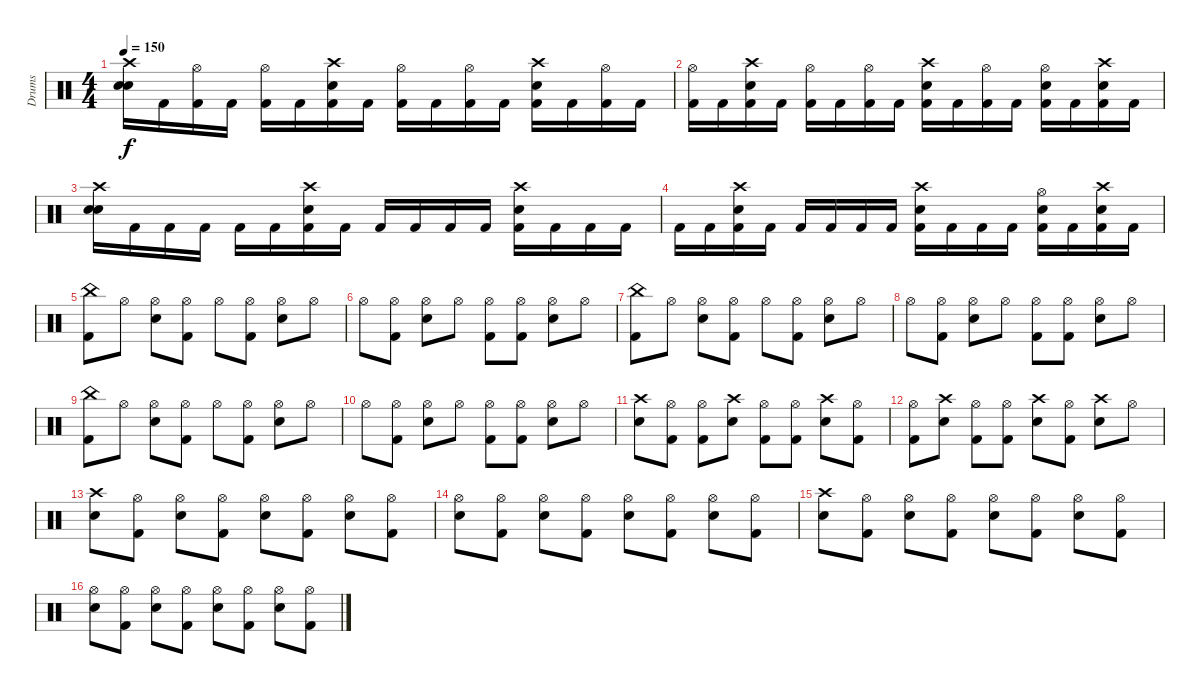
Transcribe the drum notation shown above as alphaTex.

\track ("Drums" "Drums") {instrument percussion}
\staff {score}
\articulation defaults
\ts (4 4)
\tempo 150
\clef neutral
\ks c
("Crash high (hit)" "Snare (hit) 2" "Snare (hit) 2").16{dy f} "Kick (hit) 2".16 ("Hi-Hat (open)" "Kick (hit) 2").16 "Kick (hit) 2".16 ("Hi-Hat (open)" "Kick (hit) 2").16 "Kick (hit) 2".16 ("Snare (hit) 2" "Crash high (hit)" "Kick (hit) 2").16 "Kick (hit) 2".16 ("Hi-Hat (open)" "Kick (hit) 2").16 "Kick (hit) 2".16 ("Hi-Hat (open)" "Kick (hit) 2").16 "Kick (hit) 2".16 ("Snare (hit) 2" "Crash high (hit)" "Kick (hit) 2").16 "Kick (hit) 2".16 ("Hi-Hat (open)" "Kick (hit) 2").16 "Kick (hit) 2".16 |
("Hi-Hat (open)" "Kick (hit) 2").16 "Kick (hit) 2".16 ("Snare (hit) 2" "Crash high (hit)" "Kick (hit) 2").16 "Kick (hit) 2".16 ("Hi-Hat (open)" "Kick (hit) 2").16 "Kick (hit) 2".16 ("Hi-Hat (open)" "Kick (hit) 2").16 "Kick (hit) 2".16 ("Snare (hit) 2" "Crash high (hit)" "Kick (hit) 2").16 "Kick (hit) 2".16 ("Hi-Hat (open)" "Kick (hit) 2").16 "Kick (hit) 2".16 ("Snare (hit) 2" "Hi-Hat (open)" "Kick (hit) 2").16 "Kick (hit) 2".16 ("Snare (hit) 2" "Crash high (hit)" "Kick (hit) 2").16 "Kick (hit) 2".16 |
("Crash high (hit)" "Snare (hit) 2" "Snare (hit) 2").16 "Kick (hit) 2".16 "Kick (hit) 2".16 "Kick (hit) 2".16 "Kick (hit) 2".16 "Kick (hit) 2".16 ("Snare (hit) 2" "Crash high (hit)" "Kick (hit) 2").16 "Kick (hit) 2".16 "Kick (hit) 2".16 "Kick (hit) 2".16 "Kick (hit) 2".16 "Kick (hit) 2".16 ("Snare (hit) 2" "Crash high (hit)" "Kick (hit) 2").16 "Kick (hit) 2".16 "Kick (hit) 2".16 "Kick (hit) 2".16 |
"Kick (hit) 2".16 "Kick (hit) 2".16 ("Snare (hit) 2" "Crash high (hit)" "Kick (hit) 2").16 "Kick (hit) 2".16 "Kick (hit) 2".16 "Kick (hit) 2".16 "Kick (hit) 2".16 "Kick (hit) 2".16 ("Snare (hit) 2" "Crash high (hit)" "Kick (hit) 2").16 "Kick (hit) 2".16 "Kick (hit) 2".16 "Kick (hit) 2".16 ("Snare (hit) 2" "Hi-Hat (open)" "Kick (hit) 2").16 "Kick (hit) 2".16 ("Snare (hit) 2" "Crash high (hit)" "Kick (hit) 2").16 "Kick (hit) 2".16 |
("China (hit)" "Kick (hit) 2").8 "Hi-Hat (open)".8 ("Hi-Hat (open)" "Snare (hit) 2").8 ("Hi-Hat (open)" "Kick (hit) 2").8 "Hi-Hat (open)".8 ("Hi-Hat (open)" "Kick (hit) 2").8 ("Hi-Hat (open)" "Snare (hit) 2").8 "Hi-Hat (open)".8 |
"Hi-Hat (open)".8 ("Hi-Hat (open)" "Kick (hit) 2").8 ("Hi-Hat (open)" "Snare (hit) 2").8 "Hi-Hat (open)".8 ("Hi-Hat (open)" "Kick (hit) 2").8 ("Hi-Hat (open)" "Kick (hit) 2").8 ("Hi-Hat (open)" "Snare (hit) 2").8 "Hi-Hat (open)".8 |
("China (hit)" "Kick (hit) 2").8 "Hi-Hat (open)".8 ("Hi-Hat (open)" "Snare (hit) 2").8 ("Hi-Hat (open)" "Kick (hit) 2").8 "Hi-Hat (open)".8 ("Hi-Hat (open)" "Kick (hit) 2").8 ("Hi-Hat (open)" "Snare (hit) 2").8 "Hi-Hat (open)".8 |
"Hi-Hat (open)".8 ("Hi-Hat (open)" "Kick (hit) 2").8 ("Hi-Hat (open)" "Snare (hit) 2").8 "Hi-Hat (open)".8 ("Hi-Hat (open)" "Kick (hit) 2").8 ("Hi-Hat (open)" "Kick (hit) 2").8 ("Hi-Hat (open)" "Snare (hit) 2").8 "Hi-Hat (open)".8 |
("China (hit)" "Kick (hit) 2").8 "Hi-Hat (open)".8 ("Hi-Hat (open)" "Snare (hit) 2").8 ("Hi-Hat (open)" "Kick (hit) 2").8 "Hi-Hat (open)".8 ("Hi-Hat (open)" "Kick (hit) 2").8 ("Hi-Hat (open)" "Snare (hit) 2").8 "Hi-Hat (open)".8 |
"Hi-Hat (open)".8 ("Hi-Hat (open)" "Kick (hit) 2").8 ("Hi-Hat (open)" "Snare (hit) 2").8 "Hi-Hat (open)".8 ("Hi-Hat (open)" "Kick (hit) 2").8 ("Hi-Hat (open)" "Kick (hit) 2").8 ("Hi-Hat (open)" "Snare (hit) 2").8 "Hi-Hat (open)".8 |
("Crash high (hit)" "Snare (hit) 2").8 ("Hi-Hat (open)" "Kick (hit) 2").8 ("Hi-Hat (open)" "Kick (hit) 2").8 ("Crash high (hit)" "Snare (hit) 2").8 ("Hi-Hat (open)" "Kick (hit) 2").8 ("Hi-Hat (open)" "Kick (hit) 2").8 ("Crash high (hit)" "Snare (hit) 2").8 ("Hi-Hat (open)" "Kick (hit) 2").8 |
("Hi-Hat (open)" "Kick (hit) 2").8 ("Crash high (hit)" "Snare (hit) 2").8 ("Hi-Hat (open)" "Kick (hit) 2").8 ("Hi-Hat (open)" "Kick (hit) 2").8 ("Crash high (hit)" "Snare (hit) 2").8 ("Hi-Hat (open)" "Kick (hit) 2").8 ("Crash high (hit)" "Snare (hit) 2").8 "Hi-Hat (open)".8 |
("Crash high (hit)" "Snare (hit) 2").8 ("Hi-Hat (open)" "Kick (hit) 2").8 ("Hi-Hat (open)" "Snare (hit) 2").8 ("Hi-Hat (open)" "Kick (hit) 2").8 ("Hi-Hat (open)" "Snare (hit) 2").8 ("Hi-Hat (open)" "Kick (hit) 2").8 ("Hi-Hat (open)" "Snare (hit) 2").8 ("Hi-Hat (open)" "Kick (hit) 2").8 |
("Hi-Hat (open)" "Snare (hit) 2").8 ("Hi-Hat (open)" "Kick (hit) 2").8 ("Hi-Hat (open)" "Snare (hit) 2").8 ("Hi-Hat (open)" "Kick (hit) 2").8 ("Hi-Hat (open)" "Snare (hit) 2").8 ("Hi-Hat (open)" "Kick (hit) 2").8 ("Hi-Hat (open)" "Snare (hit) 2").8 ("Hi-Hat (open)" "Kick (hit) 2").8 |
("Crash high (hit)" "Snare (hit) 2").8 ("Hi-Hat (open)" "Kick (hit) 2").8 ("Hi-Hat (open)" "Snare (hit) 2").8 ("Hi-Hat (open)" "Kick (hit) 2").8 ("Hi-Hat (open)" "Snare (hit) 2").8 ("Hi-Hat (open)" "Kick (hit) 2").8 ("Hi-Hat (open)" "Snare (hit) 2").8 ("Hi-Hat (open)" "Kick (hit) 2").8 |
("Hi-Hat (open)" "Snare (hit) 2").8 ("Hi-Hat (open)" "Kick (hit) 2").8 ("Hi-Hat (open)" "Snare (hit) 2").8 ("Hi-Hat (open)" "Kick (hit) 2").8 ("Hi-Hat (open)" "Snare (hit) 2").8 ("Hi-Hat (open)" "Kick (hit) 2").8 ("Hi-Hat (open)" "Snare (hit) 2").8 ("Hi-Hat (open)" "Kick (hit) 2").8
